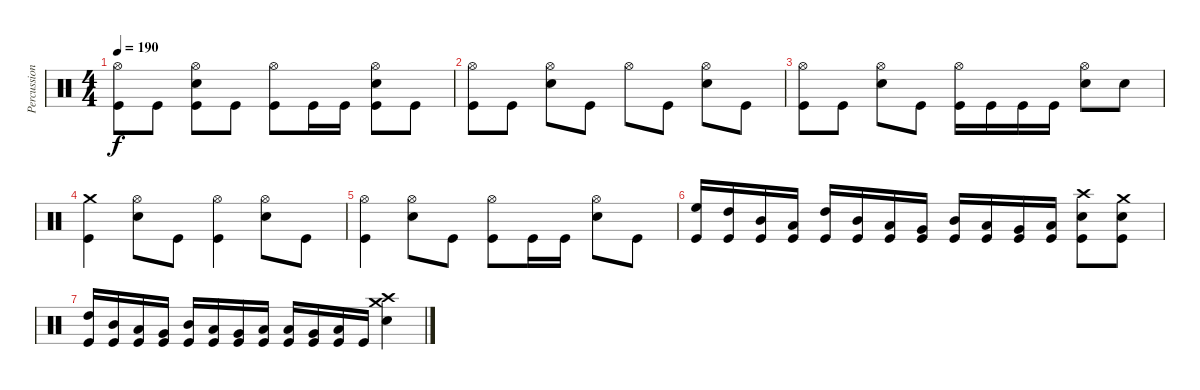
\track ("Percussions" "Percussion") {instrument percussion}
\staff {score}
\articulation defaults
\ts (4 4)
\tempo 190
\clef neutral
\ks c
("Hi-Hat (open)" "Kick (hit)").8{dy f} "Kick (hit)".8 ("Hi-Hat (open)" "Snare (hit) 2" "Kick (hit)").8 "Kick (hit)".8 ("Hi-Hat (open)" "Kick (hit)").8 "Kick (hit)".16 "Kick (hit)".16 ("Hi-Hat (open)" "Snare (hit) 2" "Kick (hit)").8 "Kick (hit)".8 |
("Hi-Hat (open)" "Kick (hit)").8 "Kick (hit)".8 ("Hi-Hat (open)" "Snare (hit) 2").8 "Kick (hit)".8 "Hi-Hat (open)".8 "Kick (hit)".8 ("Hi-Hat (open)" "Snare (hit) 2").8 "Kick (hit)".8 |
("Hi-Hat (open)" "Kick (hit)").8 "Kick (hit)".8 ("Hi-Hat (open)" "Snare (hit) 2").8 "Kick (hit)".8 ("Hi-Hat (open)" "Kick (hit)").16 "Kick (hit)".16 "Kick (hit)".16 "Kick (hit)".16 ("Hi-Hat (open)" "Snare (hit) 2").8 "Snare (hit) 2".8 |
("Crash medium (hit)" "Kick (hit)").4 ("Hi-Hat (open)" "Snare (hit) 2").8 "Kick (hit)".8 ("Hi-Hat (open)" "Kick (hit)").4 ("Hi-Hat (open)" "Snare (hit) 2").8 "Kick (hit)".8 |
("Hi-Hat (open)" "Kick (hit)").4 ("Hi-Hat (open)" "Snare (hit) 2").8 "Kick (hit)".8 ("Hi-Hat (open)" "Kick (hit)").8 "Kick (hit)".16 "Kick (hit)".16 ("Hi-Hat (open)" "Snare (hit) 2").8 "Kick (hit)".8 |
("High Floor Tom (hit)" "Kick (hit)").16 ("High Tom (hit)" "Kick (hit)").16 ("Mid Tom (hit)" "Kick (hit)").16 ("Low Tom (hit)" "Kick (hit)").16 ("High Tom (hit)" "Kick (hit)").16 ("Mid Tom (hit)" "Kick (hit)").16 ("Low Tom (hit)" "Kick (hit)").16 ("Very Low Tom (hit)" "Kick (hit)").16 ("Mid Tom (hit)" "Kick (hit)").16 ("Low Tom (hit)" "Kick (hit)").16 ("Very Low Tom (hit)" "Kick (hit)").16 ("Low Floor Tom (hit)" "Kick (hit)").16 ("Crash high (hit)" "Snare (hit) 2" "Kick (hit)").8 ("Crash medium (hit)" "Snare (hit) 2" "Kick (hit)").8 |
("High Tom (hit)" "Kick (hit)").16 ("Mid Tom (hit)" "Kick (hit)").16 ("Low Tom (hit)" "Kick (hit)").16 ("Very Low Tom (hit)" "Kick (hit)").16 ("Mid Tom (hit)" "Kick (hit)").16 ("Low Tom (hit)" "Kick (hit)").16 ("Very Low Tom (hit)" "Kick (hit)").16 ("Low Floor Tom (hit)" "Kick (hit)").16 ("Low Tom (hit)" "Kick (hit)").16 ("Very Low Tom (hit)" "Kick (hit)").16 ("Low Floor Tom (hit)" "Kick (hit)").16 "Kick (hit)".16 ("Crash medium (hit)" "Crash high (hit)" "Snare (hit) 2").4
